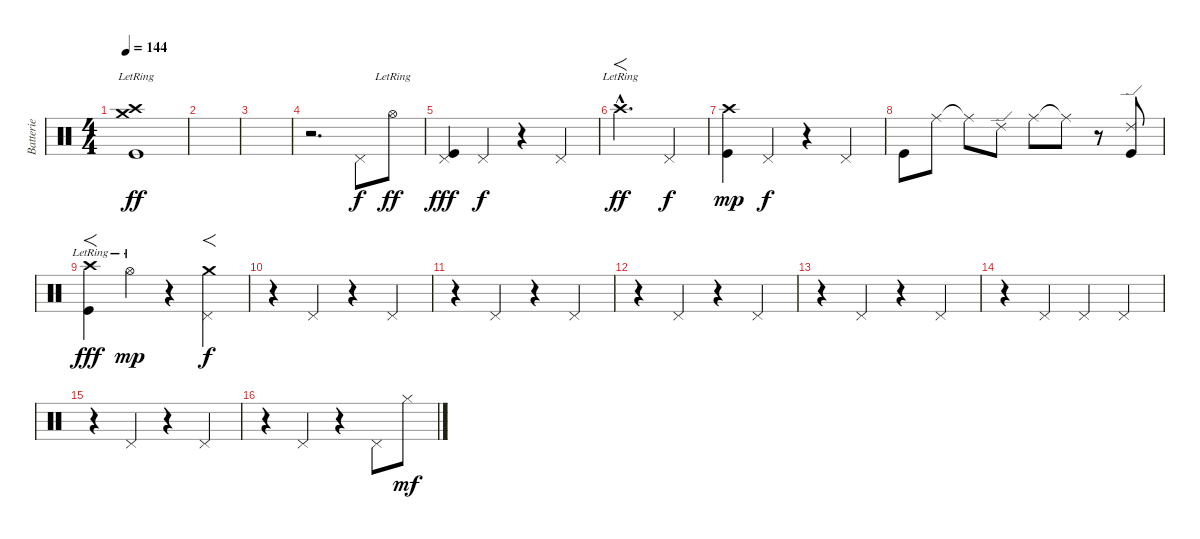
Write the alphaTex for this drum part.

\track ("Batterie" "Batterie") {instrument percussion}
\staff {score}
\articulation defaults
\ts (4 4)
\tempo 144
\clef neutral
\ks c
("Crash medium (hit)"{lr} "Kick (hit)" "Crash high (hit)"{lr}).1{dy ff} |
|
|
r.2{d} "Pedal Hi-Hat (hit)".8{dy f} "Hi-Hat (open)"{lr}.8{dy ff} |
("Pedal Hi-Hat (hit)" "Kick (hit)").4{dy fff} "Pedal Hi-Hat (hit)".4{dy f} r.4 "Pedal Hi-Hat (hit)".4 |
"Crash high (hit)"{hac lr}.2{f d dy ff} "Pedal Hi-Hat (hit)".4{dy f} |
("Crash high (hit)" "Kick (hit)").4{dy mp} "Pedal Hi-Hat (hit)".4{dy f} r.4 "Pedal Hi-Hat (hit)".4 |
"Kick (hit)".8 "Ride (middle)".8 "Ride (middle)"{t}.8 "Ride (edge) 2".8 "Ride (middle)".8 "Ride (middle)"{t}.8 r.8 ("Ride (edge) 2" "Kick (hit)").8 |
("Kick (hit)" "Crash high (hit)"{lr}).4{f dy fff} "Hi-Hat (open)"{lr}.4{dy mp} r.4 ("Pedal Hi-Hat (hit)" "Crash medium (hit)").4{f dy f} |
r.4 "Pedal Hi-Hat (hit)".4 r.4 "Pedal Hi-Hat (hit)".4 |
r.4 "Pedal Hi-Hat (hit)".4 r.4 "Pedal Hi-Hat (hit)".4 |
r.4 "Pedal Hi-Hat (hit)".4 r.4 "Pedal Hi-Hat (hit)".4 |
r.4 "Pedal Hi-Hat (hit)".4 r.4 "Pedal Hi-Hat (hit)".4 |
r.4 "Pedal Hi-Hat (hit)".4 "Pedal Hi-Hat (hit)".4 "Pedal Hi-Hat (hit)".4 |
r.4 "Pedal Hi-Hat (hit)".4 r.4 "Pedal Hi-Hat (hit)".4 |
r.4 "Pedal Hi-Hat (hit)".4 r.4 "Pedal Hi-Hat (hit)".8 "Hi-Hat (closed)".8{dy mf}
